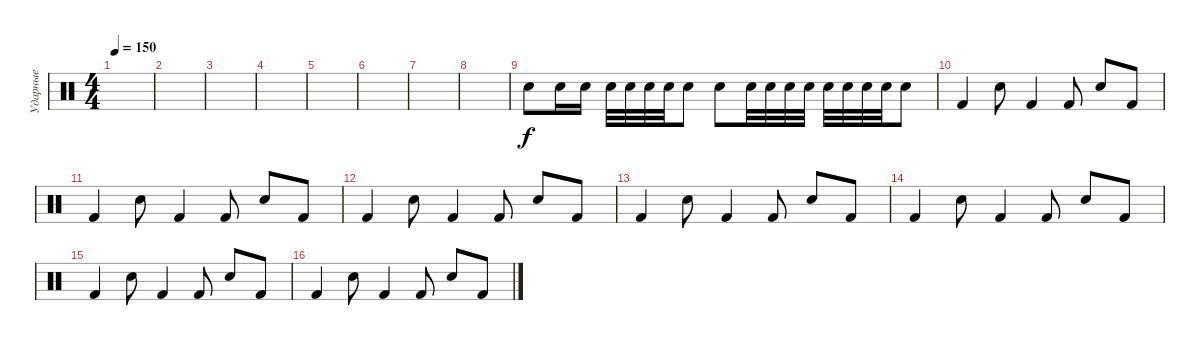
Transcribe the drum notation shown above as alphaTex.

\track ("Ударные" "Ударные") {instrument percussion}
\staff {score}
\articulation defaults
\ts (4 4)
\tempo 150
\clef neutral
\ks c
|
|
|
|
|
|
|
|
"Snare (hit) 2".8 "Snare (hit) 2".16 "Snare (hit) 2".16 "Snare (hit) 2".32 "Snare (hit) 2".32 "Snare (hit) 2".32 "Snare (hit) 2".32 "Snare (hit) 2".8 "Snare (hit) 2".8 "Snare (hit) 2".32 "Snare (hit) 2".32 "Snare (hit) 2".32 "Snare (hit) 2".32 "Snare (hit) 2".32 "Snare (hit) 2".32 "Snare (hit) 2".32 "Snare (hit) 2".32 "Snare (hit) 2".8 |
"Kick (hit) 2".4 "Snare (hit) 2".8 "Kick (hit) 2".4 "Kick (hit) 2".8 "Snare (hit) 2".8 "Kick (hit) 2".8 |
"Kick (hit) 2".4 "Snare (hit) 2".8 "Kick (hit) 2".4 "Kick (hit) 2".8 "Snare (hit) 2".8 "Kick (hit) 2".8 |
"Kick (hit) 2".4 "Snare (hit) 2".8 "Kick (hit) 2".4 "Kick (hit) 2".8 "Snare (hit) 2".8 "Kick (hit) 2".8 |
"Kick (hit) 2".4 "Snare (hit) 2".8 "Kick (hit) 2".4 "Kick (hit) 2".8 "Snare (hit) 2".8 "Kick (hit) 2".8 |
"Kick (hit) 2".4 "Snare (hit) 2".8 "Kick (hit) 2".4 "Kick (hit) 2".8 "Snare (hit) 2".8 "Kick (hit) 2".8 |
"Kick (hit) 2".4 "Snare (hit) 2".8 "Kick (hit) 2".4 "Kick (hit) 2".8 "Snare (hit) 2".8 "Kick (hit) 2".8 |
"Kick (hit) 2".4 "Snare (hit) 2".8 "Kick (hit) 2".4 "Kick (hit) 2".8 "Snare (hit) 2".8 "Kick (hit) 2".8
